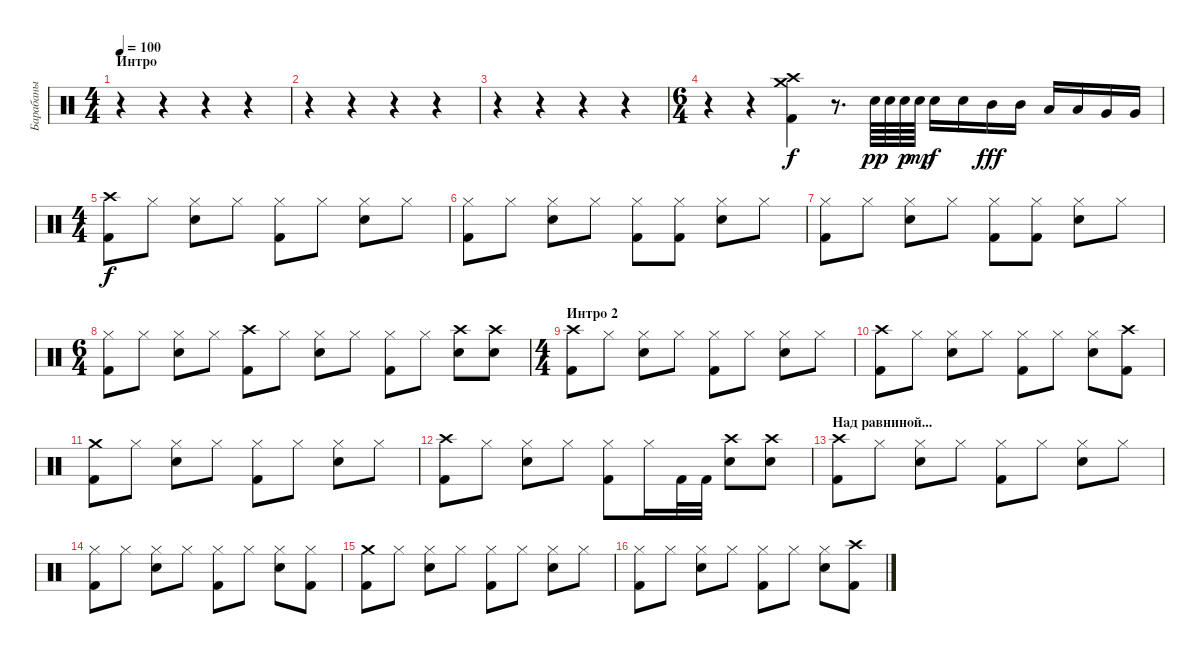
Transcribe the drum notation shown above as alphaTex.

\track ("Барабаны" "Барабаны") {instrument percussion}
\staff {score}
\articulation defaults
\ts (4 4)
\section ("" "Интро")
\tempo 100
\clef neutral
\ks c
r.4{dy f} r.4 r.4 r.4 |
r.4 r.4 r.4 r.4 |
r.4 r.4 r.4 r.4 |
\ts (6 4)
r.4 r.4 ("Crash high (hit)" "Crash medium (hit)" "Kick (hit) 2").4 r.8{d} "Snare (hit) 2".64{dy pp} "Snare (hit) 2".64 "Snare (hit) 2".64{dy p} "Snare (hit) 2".64{dy mp} "Snare (hit) 2".16{dy f} "Snare (hit) 2".16 "Mid Tom (hit)".16{dy fff} "Mid Tom (hit)".16 "Low Tom (hit)".16 "Low Tom (hit)".16 "Very Low Tom (hit)".16 "Very Low Tom (hit)".16 |
\ts (4 4)
("Crash high (hit)" "Kick (hit) 2").8{dy f} "Hi-Hat (closed)".8 ("Hi-Hat (closed)" "Snare (hit) 2").8 "Hi-Hat (closed)".8 ("Hi-Hat (closed)" "Kick (hit) 2").8 "Hi-Hat (closed)".8 ("Hi-Hat (closed)" "Snare (hit) 2").8 "Hi-Hat (closed)".8 |
("Hi-Hat (closed)" "Kick (hit) 2").8 "Hi-Hat (closed)".8 ("Hi-Hat (closed)" "Snare (hit) 2").8 "Hi-Hat (closed)".8 ("Hi-Hat (closed)" "Kick (hit) 2").8 ("Hi-Hat (closed)" "Kick (hit) 2").8 ("Hi-Hat (closed)" "Snare (hit) 2").8 "Hi-Hat (closed)".8 |
("Hi-Hat (closed)" "Kick (hit) 2").8 "Hi-Hat (closed)".8 ("Hi-Hat (closed)" "Snare (hit) 2").8 "Hi-Hat (closed)".8 ("Hi-Hat (closed)" "Kick (hit) 2").8 ("Hi-Hat (closed)" "Kick (hit) 2").8 ("Hi-Hat (closed)" "Snare (hit) 2").8 "Hi-Hat (closed)".8 |
\ts (6 4)
("Hi-Hat (closed)" "Kick (hit) 2").8 "Hi-Hat (closed)".8 ("Hi-Hat (closed)" "Snare (hit) 2").8 "Hi-Hat (closed)".8 ("Crash high (hit)" "Kick (hit) 2").8 "Hi-Hat (closed)".8 ("Hi-Hat (closed)" "Snare (hit) 2").8 "Hi-Hat (closed)".8 ("Hi-Hat (closed)" "Kick (hit) 2").8 "Hi-Hat (closed)".8 ("Crash high (hit)" "Snare (hit) 2").8 ("Crash high (hit)" "Snare (hit) 2").8 |
\ts (4 4)
\section ("" "Интро 2")
("Crash high (hit)" "Kick (hit) 2").8 "Hi-Hat (closed)".8 ("Hi-Hat (closed)" "Snare (hit) 2").8 "Hi-Hat (closed)".8 ("Hi-Hat (closed)" "Kick (hit) 2").8 "Hi-Hat (closed)".8 ("Hi-Hat (closed)" "Snare (hit) 2").8 "Hi-Hat (closed)".8 |
("Crash high (hit)" "Kick (hit) 2").8 "Hi-Hat (closed)".8 ("Hi-Hat (closed)" "Snare (hit) 2").8 "Hi-Hat (closed)".8 ("Hi-Hat (closed)" "Kick (hit) 2").8 "Hi-Hat (closed)".8 ("Hi-Hat (closed)" "Snare (hit) 2").8 ("Crash high (hit)" "Kick (hit) 2").8 |
("Crash medium (hit)" "Kick (hit) 2").8 "Hi-Hat (closed)".8 ("Hi-Hat (closed)" "Snare (hit) 2").8 "Hi-Hat (closed)".8 ("Hi-Hat (closed)" "Kick (hit) 2").8 "Hi-Hat (closed)".8 ("Hi-Hat (closed)" "Snare (hit) 2").8 "Hi-Hat (closed)".8 |
("Crash high (hit)" "Kick (hit) 2").8 "Hi-Hat (closed)".8 ("Hi-Hat (closed)" "Snare (hit) 2").8 "Hi-Hat (closed)".8 ("Hi-Hat (closed)" "Kick (hit) 2").8 "Hi-Hat (closed)".16 "Kick (hit) 2".32 "Kick (hit) 2".32 ("Crash high (hit)" "Snare (hit) 2").8 ("Crash high (hit)" "Snare (hit) 2").8 |
\section ("" "Над равниной...")
("Crash high (hit)" "Kick (hit) 2").8 "Hi-Hat (closed)".8 ("Hi-Hat (closed)" "Snare (hit) 2").8 "Hi-Hat (closed)".8 ("Hi-Hat (closed)" "Kick (hit) 2").8 "Hi-Hat (closed)".8 ("Hi-Hat (closed)" "Snare (hit) 2").8 "Hi-Hat (closed)".8 |
("Hi-Hat (closed)" "Kick (hit) 2").8 "Hi-Hat (closed)".8 ("Hi-Hat (closed)" "Snare (hit) 2").8 "Hi-Hat (closed)".8 ("Hi-Hat (closed)" "Kick (hit) 2").8 "Hi-Hat (closed)".8 ("Hi-Hat (closed)" "Snare (hit) 2").8 ("Hi-Hat (closed)" "Kick (hit) 2").8 |
("Crash medium (hit)" "Kick (hit) 2").8 "Hi-Hat (closed)".8 ("Hi-Hat (closed)" "Snare (hit) 2").8 "Hi-Hat (closed)".8 ("Hi-Hat (closed)" "Kick (hit) 2").8 "Hi-Hat (closed)".8 ("Hi-Hat (closed)" "Snare (hit) 2").8 "Hi-Hat (closed)".8 |
("Hi-Hat (closed)" "Kick (hit) 2").8 "Hi-Hat (closed)".8 ("Hi-Hat (closed)" "Snare (hit) 2").8 "Hi-Hat (closed)".8 ("Hi-Hat (closed)" "Kick (hit) 2").8 "Hi-Hat (closed)".8 ("Hi-Hat (closed)" "Snare (hit) 2").8 ("Crash high (hit)" "Kick (hit) 2").8
